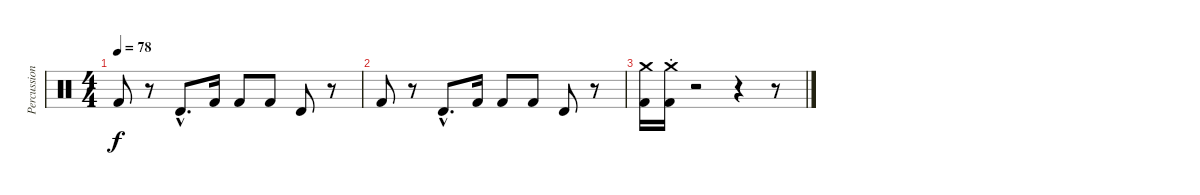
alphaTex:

\track ("Percussion" "Percussion") {instrument percussion}
\staff {score}
\articulation defaults
\ts (4 4)
\tempo 78
\clef neutral
\ks c "Kick (hit) 2".8{dy f}
r.8 "Timbale high (hit)"{hac}.8{d} "Kick (hit) 2".16 "Kick (hit) 2".8 "Kick (hit) 2".8 "Timbale high (hit)".8 r.8 |
"Kick (hit) 2".8 r.8 "Timbale high (hit)"{hac}.8{d} "Kick (hit) 2".16 "Kick (hit) 2".8 "Kick (hit) 2".8 "Timbale high (hit)".8 r.8 |
("Crash medium (hit)" "Kick (hit) 2").16 ("Crash medium (hit)"{st} "Kick (hit) 2"{st}).16 r.2 r.4 r.8
